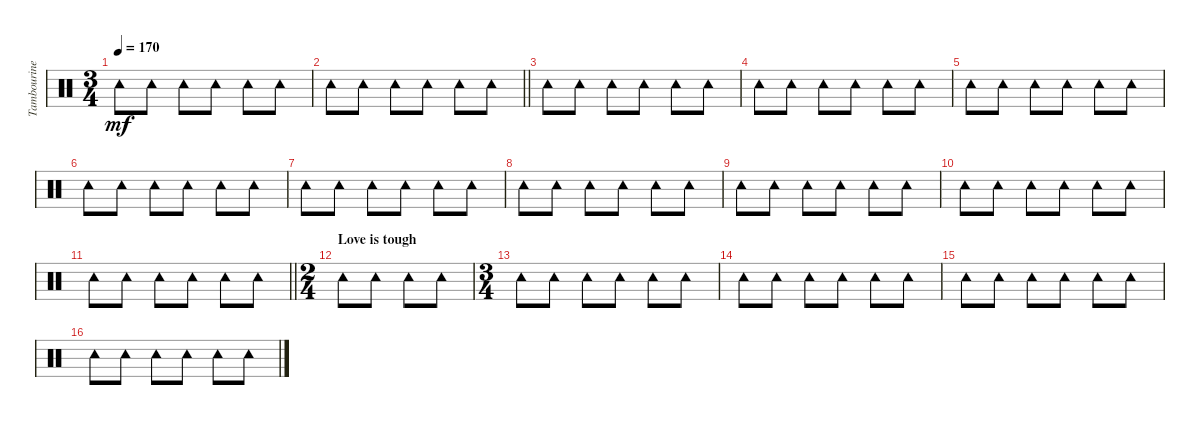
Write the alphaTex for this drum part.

\track ("Tambourine" "Tambourine") {instrument percussion}
\staff {score}
\articulation defaults
\ts (3 4)
\tempo 170
\clef neutral
\ks c "Tambourine (hit)".8{dy mf} "Tambourine (hit)".8 "Tambourine (hit)".8 "Tambourine (hit)".8 "Tambourine (hit)".8 "Tambourine (hit)".8
|
\barLineRight lightlight "Tambourine (hit)".8 "Tambourine (hit)".8 "Tambourine (hit)".8 "Tambourine (hit)".8 "Tambourine (hit)".8 "Tambourine (hit)".8
|
"Tambourine (hit)".8 "Tambourine (hit)".8 "Tambourine (hit)".8 "Tambourine (hit)".8 "Tambourine (hit)".8 "Tambourine (hit)".8 |
"Tambourine (hit)".8 "Tambourine (hit)".8 "Tambourine (hit)".8 "Tambourine (hit)".8 "Tambourine (hit)".8 "Tambourine (hit)".8 |
"Tambourine (hit)".8 "Tambourine (hit)".8 "Tambourine (hit)".8 "Tambourine (hit)".8 "Tambourine (hit)".8 "Tambourine (hit)".8 |
"Tambourine (hit)".8 "Tambourine (hit)".8 "Tambourine (hit)".8 "Tambourine (hit)".8 "Tambourine (hit)".8 "Tambourine (hit)".8 |
"Tambourine (hit)".8 "Tambourine (hit)".8 "Tambourine (hit)".8 "Tambourine (hit)".8 "Tambourine (hit)".8 "Tambourine (hit)".8 |
"Tambourine (hit)".8 "Tambourine (hit)".8 "Tambourine (hit)".8 "Tambourine (hit)".8 "Tambourine (hit)".8 "Tambourine (hit)".8 |
"Tambourine (hit)".8 "Tambourine (hit)".8 "Tambourine (hit)".8 "Tambourine (hit)".8 "Tambourine (hit)".8 "Tambourine (hit)".8 |
"Tambourine (hit)".8 "Tambourine (hit)".8 "Tambourine (hit)".8 "Tambourine (hit)".8 "Tambourine (hit)".8 "Tambourine (hit)".8 |
\barLineRight lightlight "Tambourine (hit)".8 "Tambourine (hit)".8 "Tambourine (hit)".8 "Tambourine (hit)".8 "Tambourine (hit)".8 "Tambourine (hit)".8
|
\ts (2 4)
\section ("" "Love is tough")
"Tambourine (hit)".8 "Tambourine (hit)".8 "Tambourine (hit)".8 "Tambourine (hit)".8 |
\ts (3 4)
"Tambourine (hit)".8 "Tambourine (hit)".8 "Tambourine (hit)".8 "Tambourine (hit)".8 "Tambourine (hit)".8 "Tambourine (hit)".8 |
"Tambourine (hit)".8 "Tambourine (hit)".8 "Tambourine (hit)".8 "Tambourine (hit)".8 "Tambourine (hit)".8 "Tambourine (hit)".8 |
"Tambourine (hit)".8 "Tambourine (hit)".8 "Tambourine (hit)".8 "Tambourine (hit)".8 "Tambourine (hit)".8 "Tambourine (hit)".8 |
"Tambourine (hit)".8 "Tambourine (hit)".8 "Tambourine (hit)".8 "Tambourine (hit)".8 "Tambourine (hit)".8 "Tambourine (hit)".8
